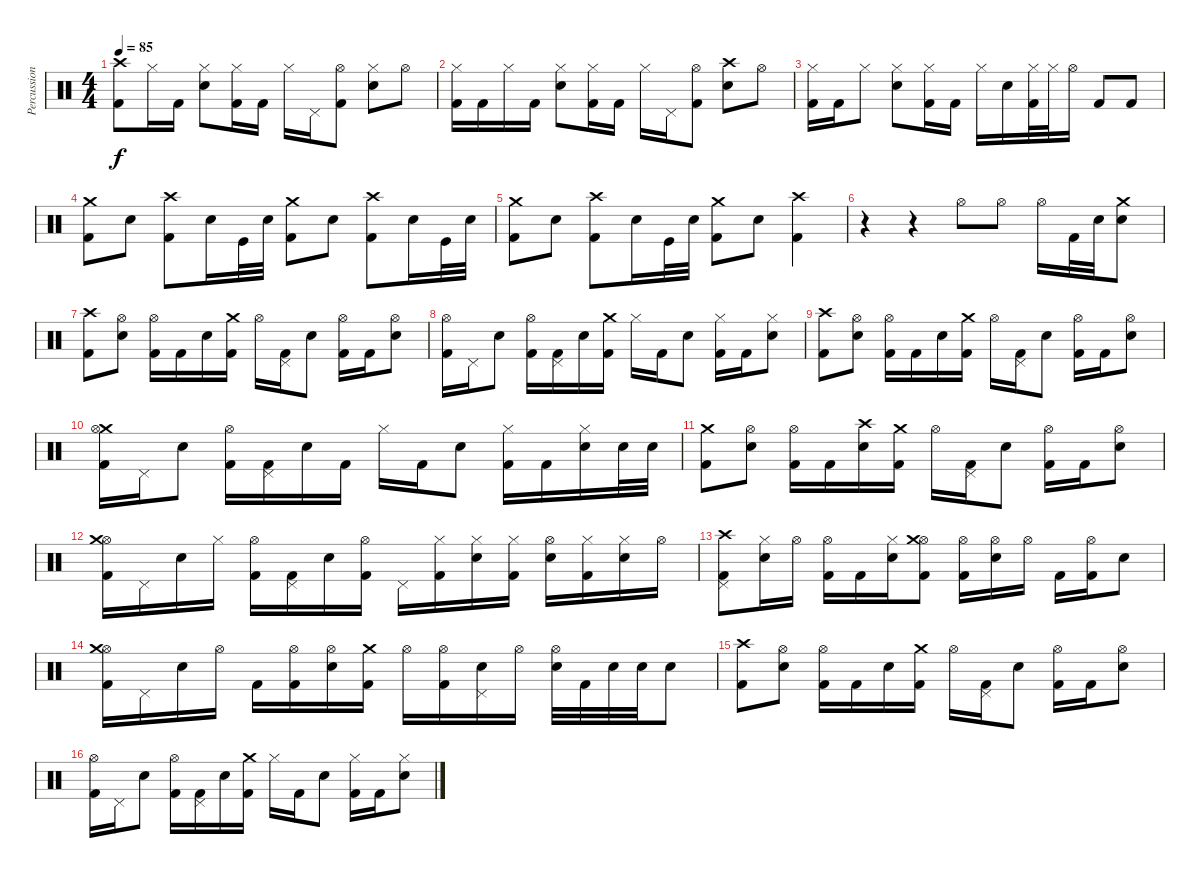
\track ("Percussion" "Percussion") {instrument percussion}
\staff {score}
\articulation defaults
\ts (4 4)
\tempo 85
\clef neutral
\ks c
("Crash high (hit)" "Kick (hit) 2").8{dy f} "Hi-Hat (closed)".16 "Kick (hit) 2".16 ("Hi-Hat (closed)" "Snare (hit) 2").8 ("Hi-Hat (closed)" "Kick (hit) 2").16 "Kick (hit) 2".16 "Hi-Hat (closed)".16 "Pedal Hi-Hat (hit)".16 ("Hi-Hat (open)" "Kick (hit) 2").8 ("Hi-Hat (closed)" "Snare (hit) 2").8 "Hi-Hat (open)".8 |
("Hi-Hat (closed)" "Kick (hit) 2").16 "Kick (hit) 2".16 "Hi-Hat (closed)".16 "Kick (hit) 2".16 ("Hi-Hat (closed)" "Snare (hit) 2").8 ("Hi-Hat (closed)" "Kick (hit) 2").16 "Kick (hit) 2".16 "Hi-Hat (closed)".16 "Pedal Hi-Hat (hit)".16 ("Kick (hit) 2" "Hi-Hat (open)").8 ("Snare (hit) 2" "Crash high (hit)").8 "Hi-Hat (open)".8 |
("Hi-Hat (closed)" "Kick (hit) 2").16 "Kick (hit) 2".16 "Hi-Hat (closed)".8 ("Hi-Hat (closed)" "Snare (hit) 2").8 ("Hi-Hat (closed)" "Kick (hit) 2").16 "Kick (hit) 2".16 "Hi-Hat (closed)".16 "Snare (hit) 2".16 ("Kick (hit) 2" "Hi-Hat (closed)").32 "Hi-Hat (closed)".32 "Hi-Hat (open)".16 "Kick (hit) 2".8 "Kick (hit) 2".8 |
("Crash medium (hit)" "Kick (hit) 2").8 "Electric Snare (hit)".8 ("Crash high (hit)" "Kick (hit) 2").8 "Electric Snare (hit)".16 "Kick (hit)".32 "Electric Snare (hit)".32 ("Crash medium (hit)" "Kick (hit) 2").8 "Electric Snare (hit)".8 ("Crash high (hit)" "Kick (hit) 2").8 "Electric Snare (hit)".16 "Kick (hit)".32 "Electric Snare (hit)".32 |
("Kick (hit) 2" "Crash medium (hit)").8 "Electric Snare (hit)".8 ("Kick (hit) 2" "Crash high (hit)").8 "Electric Snare (hit)".16 "Kick (hit)".32 "Electric Snare (hit)".32 ("Kick (hit) 2" "Crash medium (hit)").8 "Electric Snare (hit)".8 ("Kick (hit) 2" "Crash high (hit)").4 |
r.4 r.4 "Hi-Hat (open)".8 "Hi-Hat (open)".8 "Hi-Hat (open)".16 "Kick (hit) 2".32 "Electric Snare (hit)".32 ("Crash medium (hit)" "Snare (hit) 2").8 |
("Crash high (hit)" "Kick (hit) 2").8 ("Hi-Hat (open)" "Snare (hit) 2").8 ("Hi-Hat (open)" "Kick (hit) 2").16 "Kick (hit) 2".16 "Snare (hit) 2".16 ("Crash medium (hit)" "Kick (hit) 2").16 "Hi-Hat (open)".16 ("Pedal Hi-Hat (hit)" "Kick (hit) 2").16 "Snare (hit) 2".8 ("Hi-Hat (open)" "Kick (hit) 2").16 "Kick (hit) 2".16 ("Hi-Hat (open)" "Snare (hit) 2").8 |
("Hi-Hat (open)" "Kick (hit) 2").16 "Pedal Hi-Hat (hit)".16 "Snare (hit) 2".8 ("Hi-Hat (open)" "Kick (hit) 2").16 ("Pedal Hi-Hat (hit)" "Kick (hit) 2").16 "Snare (hit) 2".16 ("Crash medium (hit)" "Kick (hit) 2").16 "Hi-Hat (closed)".16 "Kick (hit) 2".16 "Snare (hit) 2".8 ("Hi-Hat (closed)" "Kick (hit) 2").16 "Kick (hit) 2".16 ("Hi-Hat (closed)" "Snare (hit) 2").8 |
("Crash high (hit)" "Kick (hit) 2").8 ("Hi-Hat (open)" "Snare (hit) 2").8 ("Hi-Hat (open)" "Kick (hit) 2").16 "Kick (hit) 2".16 "Snare (hit) 2".16 ("Crash medium (hit)" "Kick (hit) 2").16 "Hi-Hat (open)".16 ("Pedal Hi-Hat (hit)" "Kick (hit) 2").16 "Snare (hit) 2".8 ("Hi-Hat (open)" "Kick (hit) 2").16 "Kick (hit) 2".16 ("Hi-Hat (open)" "Snare (hit) 2").8 |
("Crash medium (hit)" "Hi-Hat (open)" "Kick (hit) 2").16 "Pedal Hi-Hat (hit)".16 "Snare (hit) 2".8 ("Hi-Hat (open)" "Kick (hit) 2").16 ("Pedal Hi-Hat (hit)" "Kick (hit) 2").16 "Snare (hit) 2".16 "Kick (hit) 2".16 "Hi-Hat (closed)".16 "Kick (hit) 2".16 "Snare (hit) 2".8 ("Hi-Hat (closed)" "Kick (hit) 2").16 "Kick (hit) 2".16 ("Hi-Hat (closed)" "Snare (hit) 2").16 "Snare (hit) 2".32 "Snare (hit) 2".32 |
("Crash medium (hit)" "Kick (hit) 2").8 ("Hi-Hat (open)" "Snare (hit) 2").8 ("Hi-Hat (open)" "Kick (hit) 2").16 "Kick (hit) 2".16 ("Crash high (hit)" "Snare (hit) 2").16 ("Crash medium (hit)" "Kick (hit) 2").16 "Hi-Hat (open)".16 ("Pedal Hi-Hat (hit)" "Kick (hit) 2").16 "Snare (hit) 2".8 ("Hi-Hat (open)" "Kick (hit) 2").16 "Kick (hit) 2".16 ("Hi-Hat (open)" "Snare (hit) 2").8 |
("Hi-Hat (open)" "Crash medium (hit)" "Kick (hit) 2").16 "Pedal Hi-Hat (hit)".16 "Snare (hit) 2".16 "Hi-Hat (closed)".16 ("Hi-Hat (open)" "Kick (hit) 2").16 ("Pedal Hi-Hat (hit)" "Kick (hit) 2").16 "Snare (hit) 2".16 ("Hi-Hat (open)" "Kick (hit) 2").16 "Pedal Hi-Hat (hit)".16 ("Hi-Hat (closed)" "Kick (hit) 2").16 ("Hi-Hat (closed)" "Snare (hit) 2").16 ("Hi-Hat (closed)" "Kick (hit) 2").16 ("Hi-Hat (open)" "Snare (hit) 2").16 ("Hi-Hat (closed)" "Kick (hit) 2").16 ("Hi-Hat (closed)" "Snare (hit) 2").16 "Hi-Hat (open)".16 |
("Kick (hit) 2" "Crash high (hit)" "Pedal Hi-Hat (hit)").8 ("Hi-Hat (closed)" "Snare (hit) 2").16 "Hi-Hat (open)".16 ("Hi-Hat (open)" "Kick (hit) 2").16 "Kick (hit) 2".16 ("Hi-Hat (closed)" "Snare (hit) 2").16 ("Hi-Hat (open)" "Kick (hit) 2" "Crash medium (hit)").8 ("Hi-Hat (open)" "Kick (hit) 2").16 ("Hi-Hat (open)" "Snare (hit) 2").16 "Hi-Hat (open)".16 "Kick (hit) 2".16 ("Hi-Hat (open)" "Kick (hit) 2").16 "Snare (hit) 2".8 |
("Hi-Hat (open)" "Kick (hit) 2" "Crash medium (hit)").16 "Pedal Hi-Hat (hit)".16 "Snare (hit) 2".16 "Hi-Hat (open)".16 "Kick (hit) 2".16 ("Hi-Hat (open)" "Kick (hit) 2").16 ("Hi-Hat (open)" "Snare (hit) 2").16 ("Crash medium (hit)" "Kick (hit) 2").16 "Hi-Hat (open)".16 ("Hi-Hat (open)" "Kick (hit) 2").16 ("Pedal Hi-Hat (hit)" "Snare (hit) 2").16 "Hi-Hat (open)".16 ("Hi-Hat (open)" "Electric Snare (hit)").32 "Kick (hit) 2".32 "Electric Snare (hit)".32 "Electric Snare (hit)".32 "Electric Snare (hit)".8 |
("Crash high (hit)" "Kick (hit) 2").8 ("Hi-Hat (open)" "Snare (hit) 2").8 ("Hi-Hat (open)" "Kick (hit) 2").16 "Kick (hit) 2".16 "Snare (hit) 2".16 ("Crash medium (hit)" "Kick (hit) 2").16 "Hi-Hat (open)".16 ("Pedal Hi-Hat (hit)" "Kick (hit) 2").16 "Snare (hit) 2".8 ("Hi-Hat (open)" "Kick (hit) 2").16 "Kick (hit) 2".16 ("Hi-Hat (open)" "Snare (hit) 2").8 |
("Hi-Hat (open)" "Kick (hit) 2").16 "Pedal Hi-Hat (hit)".16 "Snare (hit) 2".8 ("Hi-Hat (open)" "Kick (hit) 2").16 ("Pedal Hi-Hat (hit)" "Kick (hit) 2").16 "Snare (hit) 2".16 ("Crash medium (hit)" "Kick (hit) 2").16 "Hi-Hat (closed)".16 "Kick (hit) 2".16 "Snare (hit) 2".8 ("Hi-Hat (closed)" "Kick (hit) 2").16 "Kick (hit) 2".16 ("Hi-Hat (closed)" "Snare (hit) 2").8
